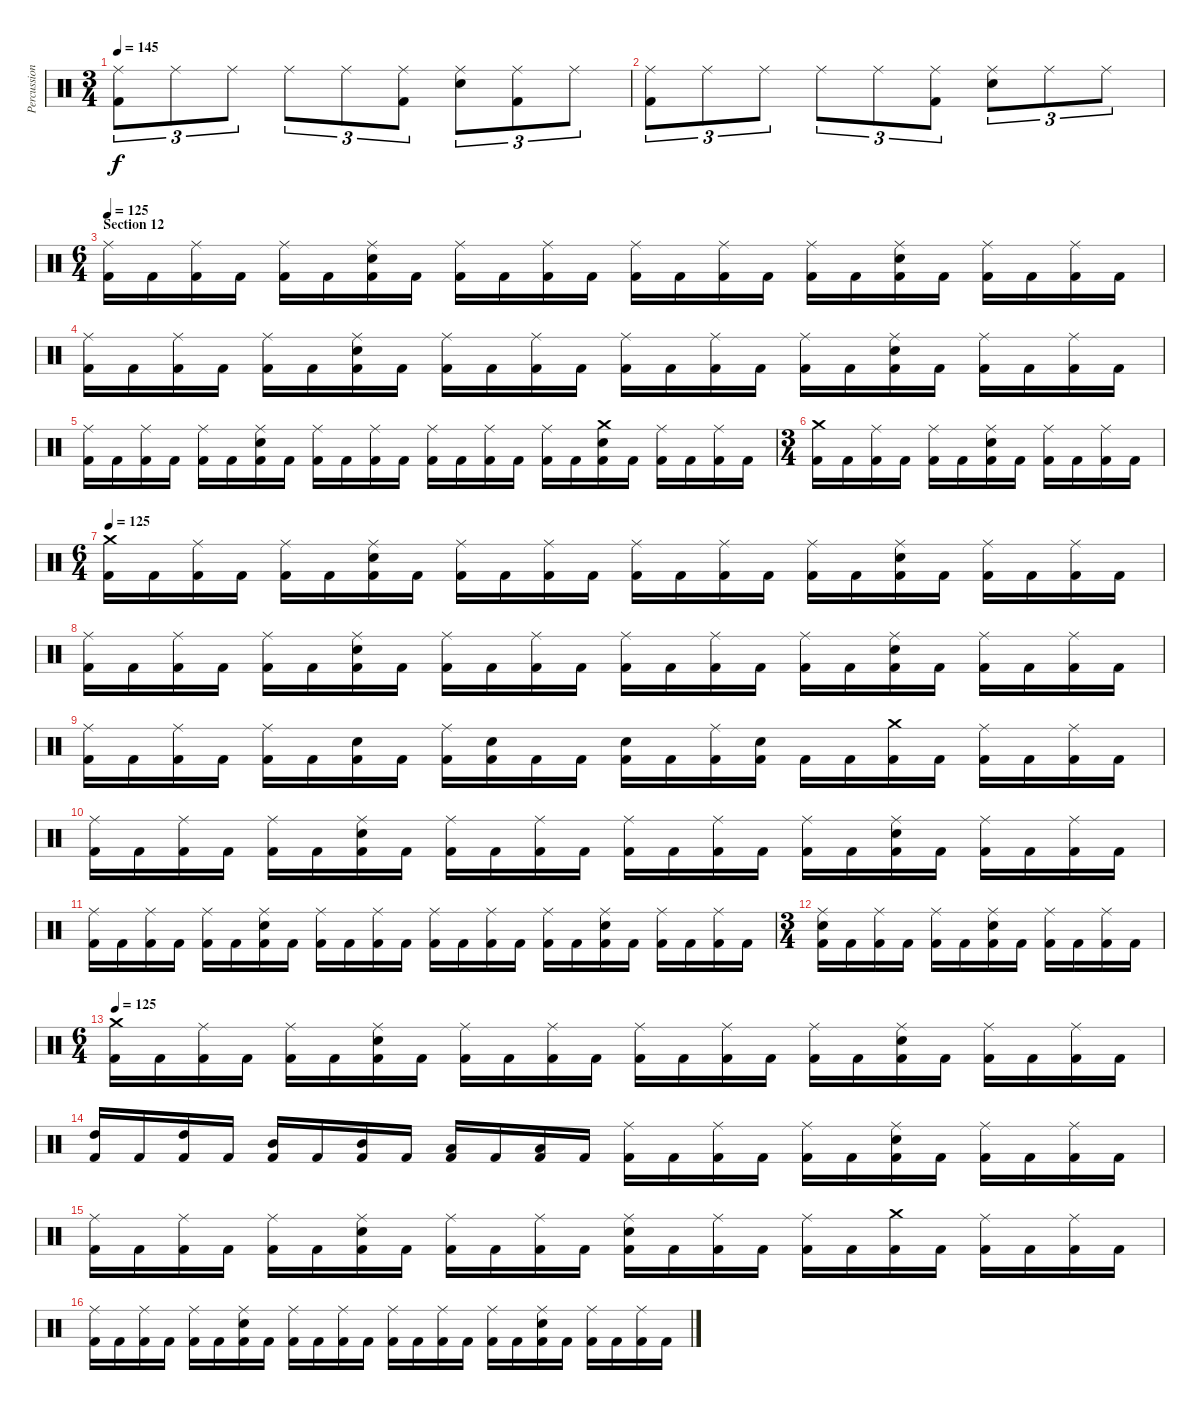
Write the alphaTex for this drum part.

\track ("Percussion" "Percussion") {instrument percussion}
\staff {score}
\articulation defaults
\ts (3 4)
\tempo 145
\clef neutral
\ks c
("Ride (middle)" "Kick (hit) 2").8{tu (3 2) dy f} "Ride (middle)".8{tu (3 2)} "Ride (middle)".8{tu (3 2)} "Ride (middle)".8{tu (3 2)} "Ride (middle)".8{tu (3 2)} ("Ride (middle)" "Kick (hit) 2").8{tu (3 2)} ("Ride (middle)" "Electric Snare (hit)").8{tu (3 2)} ("Ride (middle)" "Kick (hit) 2").8{tu (3 2)} "Ride (middle)".8{tu (3 2)} |
("Ride (middle)" "Kick (hit) 2").8{tu (3 2)} "Ride (middle)".8{tu (3 2)} "Ride (middle)".8{tu (3 2)} "Ride (middle)".8{tu (3 2)} "Ride (middle)".8{tu (3 2)} ("Ride (middle)" "Kick (hit) 2").8{tu (3 2)} ("Ride (middle)" "Electric Snare (hit)").8{tu (3 2)} "Ride (middle)".8{tu (3 2)} "Ride (middle)".8{tu (3 2)} |
\ts (6 4)
\section ("" "Section 12")
\tempo 125
("Ride (middle)" "Kick (hit) 2").16{volume 0} "Kick (hit) 2".16 ("Ride (middle)" "Kick (hit) 2").16 "Kick (hit) 2".16 ("Ride (middle)" "Kick (hit) 2").16 "Kick (hit) 2".16 ("Ride (middle)" "Electric Snare (hit)" "Kick (hit) 2").16{volume 5} "Kick (hit) 2".16 ("Ride (middle)" "Kick (hit) 2").16 "Kick (hit) 2".16 ("Ride (middle)" "Kick (hit) 2").16 "Kick (hit) 2".16 ("Ride (middle)" "Kick (hit) 2").16 "Kick (hit) 2".16 ("Ride (middle)" "Kick (hit) 2").16 "Kick (hit) 2".16 ("Ride (middle)" "Kick (hit) 2").16 "Kick (hit) 2".16 ("Ride (middle)" "Electric Snare (hit)" "Kick (hit) 2").16 "Kick (hit) 2".16 ("Ride (middle)" "Kick (hit) 2").16 "Kick (hit) 2".16 ("Ride (middle)" "Kick (hit) 2").16 "Kick (hit) 2".16 |
("Ride (middle)" "Kick (hit) 2").16 "Kick (hit) 2".16 ("Ride (middle)" "Kick (hit) 2").16 "Kick (hit) 2".16 ("Ride (middle)" "Kick (hit) 2").16 "Kick (hit) 2".16 ("Ride (middle)" "Electric Snare (hit)" "Kick (hit) 2").16 "Kick (hit) 2".16 ("Ride (middle)" "Kick (hit) 2").16 "Kick (hit) 2".16 ("Ride (middle)" "Kick (hit) 2").16 "Kick (hit) 2".16 ("Ride (middle)" "Kick (hit) 2").16 "Kick (hit) 2".16 ("Ride (middle)" "Kick (hit) 2").16 "Kick (hit) 2".16 ("Ride (middle)" "Kick (hit) 2").16 "Kick (hit) 2".16 ("Ride (middle)" "Electric Snare (hit)" "Kick (hit) 2").16 "Kick (hit) 2".16 ("Ride (middle)" "Kick (hit) 2").16 "Kick (hit) 2".16 ("Ride (middle)" "Kick (hit) 2").16 "Kick (hit) 2".16 |
("Ride (middle)" "Kick (hit) 2").16 "Kick (hit) 2".16 ("Ride (middle)" "Kick (hit) 2").16 "Kick (hit) 2".16 ("Ride (middle)" "Kick (hit) 2").16 "Kick (hit) 2".16 ("Ride (middle)" "Electric Snare (hit)" "Kick (hit) 2").16 "Kick (hit) 2".16 ("Ride (middle)" "Kick (hit) 2").16 "Kick (hit) 2".16 ("Ride (middle)" "Kick (hit) 2").16 "Kick (hit) 2".16 ("Ride (middle)" "Kick (hit) 2").16 "Kick (hit) 2".16 ("Ride (middle)" "Kick (hit) 2").16 "Kick (hit) 2".16 ("Ride (middle)" "Kick (hit) 2").16 "Kick (hit) 2".16 ("Crash medium (hit)" "Electric Snare (hit)" "Kick (hit) 2").16 "Kick (hit) 2".16 ("Ride (middle)" "Kick (hit) 2").16 "Kick (hit) 2".16 ("Ride (middle)" "Kick (hit) 2").16 "Kick (hit) 2".16 |
\ts (3 4)
("Crash medium (hit)" "Kick (hit) 2").16 "Kick (hit) 2".16 ("Ride (middle)" "Kick (hit) 2").16 "Kick (hit) 2".16 ("Ride (middle)" "Kick (hit) 2").16 "Kick (hit) 2".16 ("Ride (middle)" "Electric Snare (hit)" "Kick (hit) 2").16 "Kick (hit) 2".16 ("Ride (middle)" "Kick (hit) 2").16 "Kick (hit) 2".16 ("Ride (middle)" "Kick (hit) 2").16 "Kick (hit) 2".16 |
\ts (6 4)
\tempo 125
("Crash medium (hit)" "Kick (hit) 2").16{volume 8} "Kick (hit) 2".16 ("Ride (middle)" "Kick (hit) 2").16 "Kick (hit) 2".16 ("Ride (middle)" "Kick (hit) 2").16 "Kick (hit) 2".16 ("Ride (middle)" "Electric Snare (hit)" "Kick (hit) 2").16 "Kick (hit) 2".16 ("Ride (middle)" "Kick (hit) 2").16 "Kick (hit) 2".16 ("Ride (middle)" "Kick (hit) 2").16 "Kick (hit) 2".16 ("Ride (middle)" "Kick (hit) 2").16 "Kick (hit) 2".16 ("Ride (middle)" "Kick (hit) 2").16 "Kick (hit) 2".16 ("Ride (middle)" "Kick (hit) 2").16 "Kick (hit) 2".16 ("Ride (middle)" "Electric Snare (hit)" "Kick (hit) 2").16 "Kick (hit) 2".16 ("Ride (middle)" "Kick (hit) 2").16 "Kick (hit) 2".16 ("Ride (middle)" "Kick (hit) 2").16 "Kick (hit) 2".16 |
("Ride (middle)" "Kick (hit) 2").16 "Kick (hit) 2".16 ("Ride (middle)" "Kick (hit) 2").16 "Kick (hit) 2".16 ("Ride (middle)" "Kick (hit) 2").16 "Kick (hit) 2".16 ("Ride (middle)" "Electric Snare (hit)" "Kick (hit) 2").16 "Kick (hit) 2".16 ("Ride (middle)" "Kick (hit) 2").16 "Kick (hit) 2".16 ("Ride (middle)" "Kick (hit) 2").16 "Kick (hit) 2".16 ("Ride (middle)" "Kick (hit) 2").16 "Kick (hit) 2".16 ("Ride (middle)" "Kick (hit) 2").16 "Kick (hit) 2".16 ("Ride (middle)" "Kick (hit) 2").16 "Kick (hit) 2".16 ("Ride (middle)" "Electric Snare (hit)" "Kick (hit) 2").16 "Kick (hit) 2".16 ("Ride (middle)" "Kick (hit) 2").16 "Kick (hit) 2".16 ("Ride (middle)" "Kick (hit) 2").16 "Kick (hit) 2".16 |
("Ride (middle)" "Kick (hit) 2").16 "Kick (hit) 2".16 ("Ride (middle)" "Kick (hit) 2").16 "Kick (hit) 2".16 ("Ride (middle)" "Kick (hit) 2").16 "Kick (hit) 2".16 ("Electric Snare (hit)" "Kick (hit) 2").16 "Kick (hit) 2".16 ("Ride (middle)" "Kick (hit) 2").16 ("Electric Snare (hit)" "Kick (hit) 2").16 "Kick (hit) 2".16 "Kick (hit) 2".16 ("Electric Snare (hit)" "Kick (hit) 2").16 "Kick (hit) 2".16 ("Ride (middle)" "Kick (hit) 2").16 ("Electric Snare (hit)" "Kick (hit) 2").16 "Kick (hit) 2".16 "Kick (hit) 2".16 ("Crash medium (hit)" "Kick (hit) 2").16 "Kick (hit) 2".16 ("Ride (middle)" "Kick (hit) 2").16 "Kick (hit) 2".16 ("Ride (middle)" "Kick (hit) 2").16 "Kick (hit) 2".16 |
("Ride (middle)" "Kick (hit) 2").16{volume 11} "Kick (hit) 2".16 ("Ride (middle)" "Kick (hit) 2").16 "Kick (hit) 2".16 ("Ride (middle)" "Kick (hit) 2").16 "Kick (hit) 2".16 ("Ride (middle)" "Electric Snare (hit)" "Kick (hit) 2").16 "Kick (hit) 2".16 ("Ride (middle)" "Kick (hit) 2").16 "Kick (hit) 2".16 ("Ride (middle)" "Kick (hit) 2").16 "Kick (hit) 2".16 ("Ride (middle)" "Kick (hit) 2").16 "Kick (hit) 2".16 ("Ride (middle)" "Kick (hit) 2").16 "Kick (hit) 2".16 ("Ride (middle)" "Kick (hit) 2").16 "Kick (hit) 2".16 ("Ride (middle)" "Electric Snare (hit)" "Kick (hit) 2").16 "Kick (hit) 2".16 ("Ride (middle)" "Kick (hit) 2").16 "Kick (hit) 2".16 ("Ride (middle)" "Kick (hit) 2").16 "Kick (hit) 2".16 |
("Ride (middle)" "Kick (hit) 2").16 "Kick (hit) 2".16 ("Ride (middle)" "Kick (hit) 2").16 "Kick (hit) 2".16 ("Ride (middle)" "Kick (hit) 2").16 "Kick (hit) 2".16 ("Ride (middle)" "Electric Snare (hit)" "Kick (hit) 2").16 "Kick (hit) 2".16 ("Ride (middle)" "Kick (hit) 2").16 "Kick (hit) 2".16 ("Ride (middle)" "Kick (hit) 2").16 "Kick (hit) 2".16 ("Ride (middle)" "Kick (hit) 2").16 "Kick (hit) 2".16 ("Ride (middle)" "Kick (hit) 2").16 "Kick (hit) 2".16 ("Ride (middle)" "Kick (hit) 2").16 "Kick (hit) 2".16 ("Ride (middle)" "Electric Snare (hit)" "Kick (hit) 2").16 "Kick (hit) 2".16 ("Ride (middle)" "Kick (hit) 2").16 "Kick (hit) 2".16 ("Ride (middle)" "Kick (hit) 2").16 "Kick (hit) 2".16 |
\ts (3 4)
("Ride (middle)" "Electric Snare (hit)" "Kick (hit) 2").16 "Kick (hit) 2".16 ("Ride (middle)" "Kick (hit) 2").16 "Kick (hit) 2".16 ("Ride (middle)" "Kick (hit) 2").16 "Kick (hit) 2".16 ("Ride (middle)" "Electric Snare (hit)" "Kick (hit) 2").16 "Kick (hit) 2".16 ("Ride (middle)" "Kick (hit) 2").16 "Kick (hit) 2".16 ("Ride (middle)" "Kick (hit) 2").16 "Kick (hit) 2".16 |
\ts (6 4)
\tempo 125
("Crash medium (hit)" "Kick (hit) 2").16{volume 11} "Kick (hit) 2".16 ("Ride (middle)" "Kick (hit) 2").16 "Kick (hit) 2".16 ("Ride (middle)" "Kick (hit) 2").16 "Kick (hit) 2".16 ("Ride (middle)" "Electric Snare (hit)" "Kick (hit) 2").16 "Kick (hit) 2".16 ("Ride (middle)" "Kick (hit) 2").16 "Kick (hit) 2".16 ("Ride (middle)" "Kick (hit) 2").16 "Kick (hit) 2".16 ("Ride (middle)" "Kick (hit) 2").16 "Kick (hit) 2".16 ("Ride (middle)" "Kick (hit) 2").16 "Kick (hit) 2".16 ("Ride (middle)" "Kick (hit) 2").16 "Kick (hit) 2".16 ("Ride (middle)" "Electric Snare (hit)" "Kick (hit) 2").16 "Kick (hit) 2".16 ("Ride (middle)" "Kick (hit) 2").16 "Kick (hit) 2".16 ("Ride (middle)" "Kick (hit) 2").16 "Kick (hit) 2".16 |
("High Tom (hit)" "Kick (hit) 2").16 "Kick (hit) 2".16 ("High Tom (hit)" "Kick (hit) 2").16 "Kick (hit) 2".16 ("Mid Tom (hit)" "Kick (hit) 2").16 "Kick (hit) 2".16 ("Mid Tom (hit)" "Kick (hit) 2").16 "Kick (hit) 2".16 ("Low Tom (hit)" "Kick (hit) 2").16 "Kick (hit) 2".16 ("Low Tom (hit)" "Kick (hit) 2").16 "Kick (hit) 2".16 ("Ride (middle)" "Kick (hit) 2").16 "Kick (hit) 2".16 ("Ride (middle)" "Kick (hit) 2").16 "Kick (hit) 2".16 ("Ride (middle)" "Kick (hit) 2").16 "Kick (hit) 2".16 ("Ride (middle)" "Electric Snare (hit)" "Kick (hit) 2").16 "Kick (hit) 2".16 ("Ride (middle)" "Kick (hit) 2").16 "Kick (hit) 2".16 ("Ride (middle)" "Kick (hit) 2").16 "Kick (hit) 2".16 |
("Ride (middle)" "Kick (hit) 2").16 "Kick (hit) 2".16 ("Ride (middle)" "Kick (hit) 2").16 "Kick (hit) 2".16 ("Ride (middle)" "Kick (hit) 2").16 "Kick (hit) 2".16 ("Ride (middle)" "Electric Snare (hit)" "Kick (hit) 2").16 "Kick (hit) 2".16 ("Ride (middle)" "Kick (hit) 2").16 "Kick (hit) 2".16 ("Ride (middle)" "Kick (hit) 2").16 "Kick (hit) 2".16 ("Ride (middle)" "Electric Snare (hit)" "Kick (hit) 2").16 "Kick (hit) 2".16 ("Ride (middle)" "Kick (hit) 2").16 "Kick (hit) 2".16 ("Ride (middle)" "Kick (hit) 2").16 "Kick (hit) 2".16 ("Crash medium (hit)" "Kick (hit) 2").16 "Kick (hit) 2".16 ("Ride (middle)" "Kick (hit) 2").16 "Kick (hit) 2".16 ("Ride (middle)" "Kick (hit) 2").16 "Kick (hit) 2".16 |
("Ride (middle)" "Kick (hit) 2").16 "Kick (hit) 2".16 ("Ride (middle)" "Kick (hit) 2").16 "Kick (hit) 2".16 ("Ride (middle)" "Kick (hit) 2").16 "Kick (hit) 2".16 ("Ride (middle)" "Electric Snare (hit)" "Kick (hit) 2").16 "Kick (hit) 2".16 ("Ride (middle)" "Kick (hit) 2").16 "Kick (hit) 2".16 ("Ride (middle)" "Kick (hit) 2").16 "Kick (hit) 2".16 ("Ride (middle)" "Kick (hit) 2").16 "Kick (hit) 2".16 ("Ride (middle)" "Kick (hit) 2").16 "Kick (hit) 2".16 ("Ride (middle)" "Kick (hit) 2").16 "Kick (hit) 2".16 ("Ride (middle)" "Electric Snare (hit)" "Kick (hit) 2").16 "Kick (hit) 2".16 ("Ride (middle)" "Kick (hit) 2").16 "Kick (hit) 2".16 ("Ride (middle)" "Kick (hit) 2").16 "Kick (hit) 2".16
